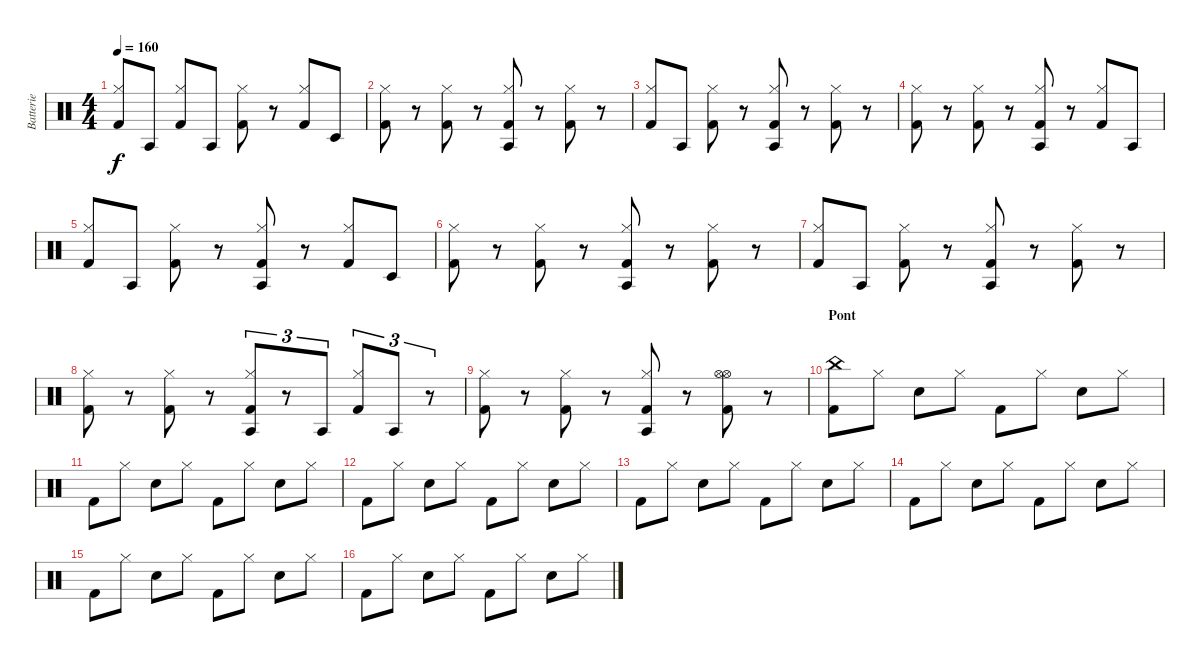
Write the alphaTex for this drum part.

\track ("Batterie" "Batterie") {instrument percussion}
\staff {score}
\articulation defaults
\ts (4 4)
\tempo 160
\clef neutral
\ks c
("Hi-Hat (closed)" "Kick (hit) 2").8{dy f} "Agogo tow (hit)".8 ("Hi-Hat (closed)" "Kick (hit) 2").8 "Agogo tow (hit)".8 ("Hi-Hat (closed)" "Kick (hit) 2").8 r.8 ("Hi-Hat (closed)" "Kick (hit) 2").8 "Timbale low (hit)".8 |
("Hi-Hat (closed)" "Kick (hit) 2").8 r.8 ("Hi-Hat (closed)" "Kick (hit) 2").8 r.8 ("Hi-Hat (closed)" "Agogo tow (hit)" "Kick (hit) 2").8 r.8 ("Hi-Hat (closed)" "Kick (hit) 2").8 r.8 |
("Hi-Hat (closed)" "Kick (hit) 2").8 "Agogo tow (hit)".8 ("Hi-Hat (closed)" "Kick (hit) 2").8 r.8 ("Hi-Hat (closed)" "Agogo tow (hit)" "Kick (hit) 2").8 r.8 ("Hi-Hat (closed)" "Kick (hit) 2").8 r.8 |
("Hi-Hat (closed)" "Kick (hit) 2").8 r.8 ("Hi-Hat (closed)" "Kick (hit) 2").8 r.8 ("Hi-Hat (closed)" "Agogo tow (hit)" "Kick (hit) 2").8 r.8 ("Hi-Hat (closed)" "Kick (hit) 2").8 "Agogo tow (hit)".8 |
("Hi-Hat (closed)" "Kick (hit) 2").8 "Agogo tow (hit)".8 ("Hi-Hat (closed)" "Kick (hit) 2").8 r.8 ("Hi-Hat (closed)" "Agogo tow (hit)" "Kick (hit) 2").8 r.8 ("Hi-Hat (closed)" "Kick (hit) 2").8 "Timbale low (hit)".8 |
("Hi-Hat (closed)" "Kick (hit) 2").8 r.8 ("Hi-Hat (closed)" "Kick (hit) 2").8 r.8 ("Hi-Hat (closed)" "Agogo tow (hit)" "Kick (hit) 2").8 r.8 ("Hi-Hat (closed)" "Kick (hit) 2").8 r.8 |
("Hi-Hat (closed)" "Kick (hit) 2").8 "Agogo tow (hit)".8 ("Hi-Hat (closed)" "Kick (hit) 2").8 r.8 ("Hi-Hat (closed)" "Agogo tow (hit)" "Kick (hit) 2").8 r.8 ("Hi-Hat (closed)" "Kick (hit) 2").8 r.8 |
("Hi-Hat (closed)" "Kick (hit) 2").8 r.8 ("Hi-Hat (closed)" "Kick (hit) 2").8 r.8 ("Hi-Hat (closed)" "Agogo tow (hit)" "Kick (hit) 2").8{tu (3 2)} r.8{tu (3 2)} "Agogo tow (hit)".8{tu (3 2)} ("Hi-Hat (closed)" "Kick (hit) 2").8{tu (3 2)} "Agogo tow (hit)".8{tu (3 2)} r.8{tu (3 2)} |
("Hi-Hat (closed)" "Kick (hit) 2").8 r.8 ("Hi-Hat (closed)" "Kick (hit) 2").8 r.8 ("Hi-Hat (closed)" "Agogo tow (hit)" "Kick (hit) 2").8 r.8 ("Hi-Hat (open)" "Hi-Hat (open)" "Kick (hit) 2").8 r.8 |
\section ("" "Pont")
("China (hit)" "Kick (hit) 2").8 "Hi-Hat (closed)".8 "Snare (hit) 2".8 "Hi-Hat (closed)".8 "Kick (hit) 2".8 "Hi-Hat (closed)".8 "Snare (hit) 2".8 "Hi-Hat (closed)".8 |
"Kick (hit) 2".8 "Hi-Hat (closed)".8 "Snare (hit) 2".8 "Hi-Hat (closed)".8 "Kick (hit) 2".8 "Hi-Hat (closed)".8 "Snare (hit) 2".8 "Hi-Hat (closed)".8 |
"Kick (hit) 2".8 "Hi-Hat (closed)".8 "Snare (hit) 2".8 "Hi-Hat (closed)".8 "Kick (hit) 2".8 "Hi-Hat (closed)".8 "Snare (hit) 2".8 "Hi-Hat (closed)".8 |
"Kick (hit) 2".8 "Hi-Hat (closed)".8 "Snare (hit) 2".8 "Hi-Hat (closed)".8 "Kick (hit) 2".8 "Hi-Hat (closed)".8 "Snare (hit) 2".8 "Hi-Hat (closed)".8 |
"Kick (hit) 2".8 "Hi-Hat (closed)".8 "Snare (hit) 2".8 "Hi-Hat (closed)".8 "Kick (hit) 2".8 "Hi-Hat (closed)".8 "Snare (hit) 2".8 "Hi-Hat (closed)".8 |
"Kick (hit) 2".8 "Hi-Hat (closed)".8 "Snare (hit) 2".8 "Hi-Hat (closed)".8 "Kick (hit) 2".8 "Hi-Hat (closed)".8 "Snare (hit) 2".8 "Hi-Hat (closed)".8 |
"Kick (hit) 2".8 "Hi-Hat (closed)".8 "Snare (hit) 2".8 "Hi-Hat (closed)".8 "Kick (hit) 2".8 "Hi-Hat (closed)".8 "Snare (hit) 2".8 "Hi-Hat (closed)".8
